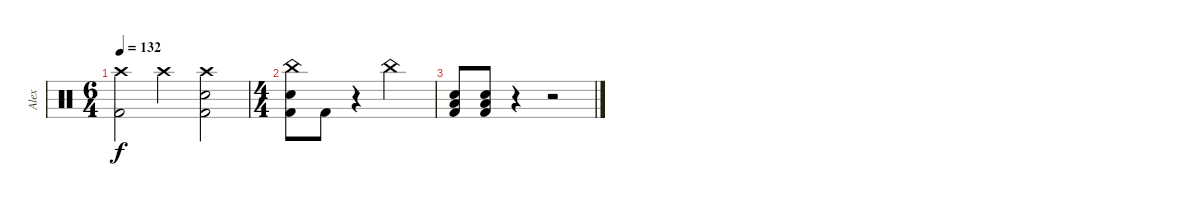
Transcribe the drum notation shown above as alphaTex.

\track ("Alex" "Alex") {instrument percussion}
\staff {score}
\articulation defaults
\ts (6 4)
\tempo 132
\clef neutral
\ks c
("Crash high (hit)" "Kick (hit) 2").2{dy f} "Crash high (hit)".2 ("Crash high (hit)" "Electric Snare (hit)" "Kick (hit) 2").2 |
\ts (4 4)
("China (hit)" "Electric Snare (hit)" "Kick (hit) 2").8 "Kick (hit) 2".8 r.4 "China (hit)".2 |
("Low Floor Tom (hit)" "Electric Snare (hit)" "Kick (hit) 2").8 ("Low Floor Tom (hit)" "Electric Snare (hit)" "Kick (hit) 2").8 r.4 r.2
